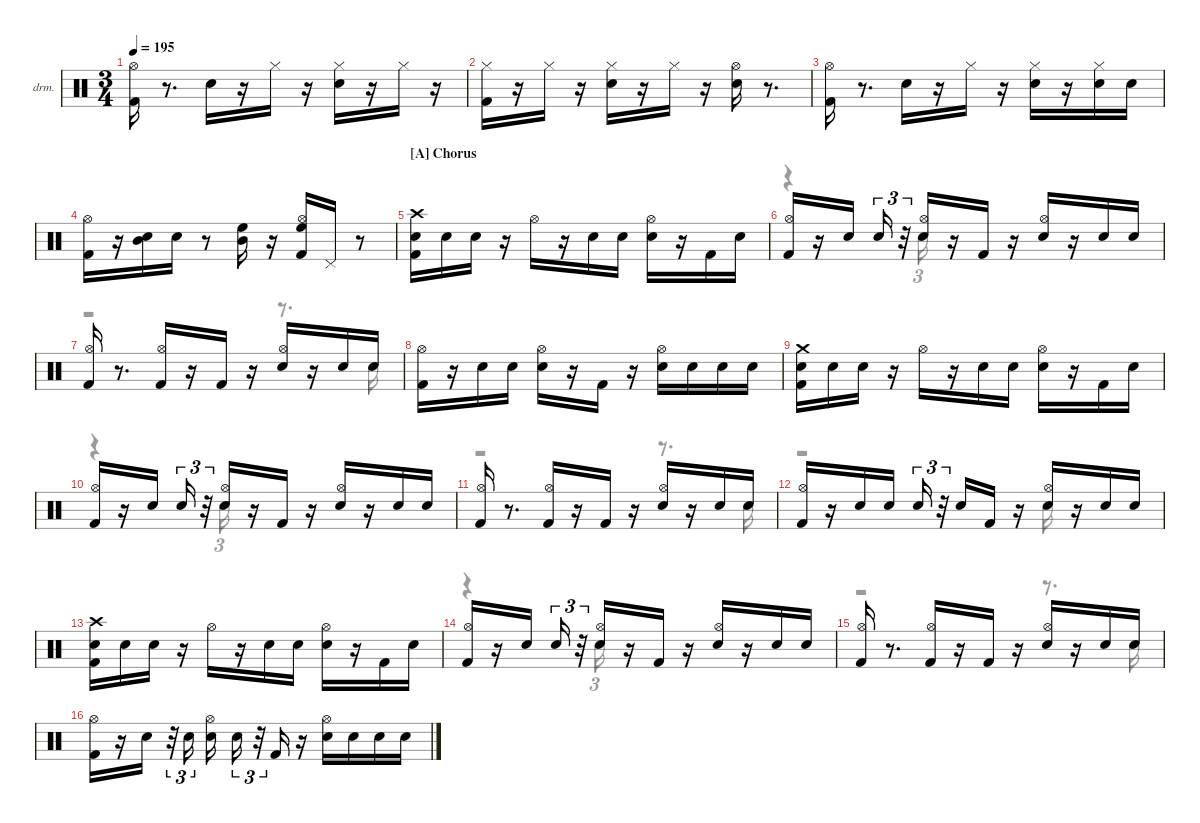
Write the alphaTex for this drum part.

\hideDynamics
\bracketExtendMode nobrackets
\firstSystemTrackNameOrientation horizontal
\track ("Drums" "drm.") {instrument percussion}
\staff {score}
\articulation defaults
\voice
\ts (3 4)
\tempo 195
\clef neutral
\ks aminor
("Kick (hit) 2" "Hi-Hat (open)"{acc #}).16{dy ff} r.8{d} "Snare (hit) 2".16 r.16 "Hi-Hat (closed)"{acc #}.16{dy ppp} r.16 ("Snare (hit) 2" "Hi-Hat (closed)"{acc #}).16{dy f} r.16 "Hi-Hat (closed)"{acc #}.16{dy pp} r.16 |
("Kick (hit) 2" "Hi-Hat (closed)"{acc #}).16{dy fff} r.16 "Hi-Hat (closed)"{acc #}.16{dy ppp} r.16 ("Snare (hit) 2" "Hi-Hat (closed)"{acc #}).16{dy f} r.16 "Hi-Hat (closed)"{acc #}.16{dy ppp} r.16 ("Snare (hit) 2" "Hi-Hat (open)"{acc #}).16{dy f} r.8{d} |
("Kick (hit) 2" "Hi-Hat (open)"{acc #}).16{dy fff} r.8{d} "Snare (hit) 2".16{dy f} r.16 "Hi-Hat (closed)"{acc #}.16{dy ppp} r.16 ("Snare (hit) 2" "Hi-Hat (closed)"{acc #}).16{dy f} r.16 ("Snare (hit) 2" "Hi-Hat (closed)"{acc #}).16{dy pp} "Snare (hit) 2".16 |
("Kick (hit) 2" "Hi-Hat (open)"{acc #}).16{dy fff} r.16 ("Snare (hit) 2" "Mid Tom (hit)").16 "Snare (hit) 2".16{dy ppp} r.8 ("Mid Tom (hit)" "High Floor Tom (hit)").16{dy fff} r.16 ("Kick (hit) 2" "Hi-Hat (open)"{acc #} "High Floor Tom (hit)").16 "Pedal Hi-Hat (hit)"{acc #}.16{dy pp} r.8 |
\section ("A" "Chorus")
("Kick (hit) 2" "Snare (hit) 2" "Crash high (hit)"{acc #}).16{dy fff} "Snare (hit) 2".16{dy pp} "Snare (hit) 2".16{dy ppp} r.16 "Hi-Hat (open)"{acc #}.16{dy mp} r.16 "Snare (hit) 2".16{dy ff} "Snare (hit) 2".16{dy pp} ("Snare (hit) 2" "Hi-Hat (open)"{acc #}).16{dy ppp} r.16 "Kick (hit) 2".16{dy p} "Snare (hit) 2".16{dy ppp} |
("Kick (hit) 2" "Hi-Hat (open)"{acc #}).16{dy ff} r.16 "Snare (hit) 2".16 "Snare (hit) 2".16{tu (3 2) dy pp} r.32{tu (3 2)} ("Snare (hit) 2" "Hi-Hat (open)"{acc #}).16{dy ppp} r.16 "Kick (hit) 2".16{dy f} r.16 ("Snare (hit) 2" "Hi-Hat (open)"{acc #}).16{dy ff} r.16 "Snare (hit) 2".16{dy f} "Snare (hit) 2".16{dy ppp} |
("Kick (hit) 2" "Hi-Hat (open)"{acc #}).16{dy fff} r.8{d} ("Kick (hit) 2" "Hi-Hat (open)"{acc #}).16{dy mp} r.16 "Kick (hit) 2".16{dy ff} r.16 ("Snare (hit) 2" "Hi-Hat (open)"{acc #}).16{dy mf} r.16 "Snare (hit) 2".16{dy pp} "Snare (hit) 2".16{dy ppp} |
("Kick (hit) 2" "Hi-Hat (open)"{acc #}).16{dy ff} r.16 "Snare (hit) 2".16{dy fff} "Snare (hit) 2".16{dy pp} ("Snare (hit) 2" "Hi-Hat (open)"{acc #}).16{dy ppp} r.16 "Kick (hit) 2".16{dy f} r.16 ("Snare (hit) 2" "Hi-Hat (open)"{acc #}).16{dy fff} "Snare (hit) 2".16{dy ppp} "Snare (hit) 2".16 "Snare (hit) 2".16 |
("Kick (hit) 2" "Snare (hit) 2" "Crash medium (hit)").16{dy f} "Snare (hit) 2".16{dy pp} "Snare (hit) 2".16{dy ppp} r.16 "Hi-Hat (open)"{acc #}.16{dy mp} r.16 "Snare (hit) 2".16{dy ff} "Snare (hit) 2".16{dy pp} ("Snare (hit) 2" "Hi-Hat (open)"{acc #}).16{dy mf} r.16 "Kick (hit) 2".16{dy p} "Snare (hit) 2".16{dy ppp} |
("Kick (hit) 2" "Hi-Hat (open)"{acc #}).16{dy ff} r.16 "Snare (hit) 2".16 "Snare (hit) 2".16{tu (3 2) dy pp} r.32{tu (3 2)} ("Snare (hit) 2" "Hi-Hat (open)"{acc #}).16{dy mf} r.16 "Kick (hit) 2".16{dy f} r.16 ("Snare (hit) 2" "Hi-Hat (open)"{acc #}).16{dy ff} r.16 "Snare (hit) 2".16{dy f} "Snare (hit) 2".16{dy ppp} |
("Kick (hit) 2" "Hi-Hat (open)"{acc #}).16{dy fff} r.8{d} ("Kick (hit) 2" "Hi-Hat (open)"{acc #}).16{dy mp} r.16 "Kick (hit) 2".16{dy ff} r.16 ("Snare (hit) 2" "Hi-Hat (open)"{acc #}).16{dy mf} r.16 "Snare (hit) 2".16{dy pp} "Snare (hit) 2".16{dy ppp} |
("Kick (hit) 2" "Hi-Hat (open)"{acc #}).16{dy ff} r.16 "Snare (hit) 2".16{dy mf} "Snare (hit) 2".16{dy p} "Snare (hit) 2".16{tu (3 2) dy fff} r.32{tu (3 2)} "Snare (hit) 2".16{dy ppp} "Kick (hit) 2".16{dy f} r.16 ("Snare (hit) 2" "Hi-Hat (open)"{acc #}).16{dy fff} r.16 "Snare (hit) 2".16{dy pp} "Snare (hit) 2".16{dy ppp} |
("Kick (hit) 2" "Snare (hit) 2" "Crash high (hit)"{acc #}).16{dy fff} "Snare (hit) 2".16{dy pp} "Snare (hit) 2".16{dy ppp} r.16 "Hi-Hat (open)"{acc #}.16{dy mp} r.16 "Snare (hit) 2".16{dy ff} "Snare (hit) 2".16{dy pp} ("Snare (hit) 2" "Hi-Hat (open)"{acc #}).16{dy mf} r.16 "Kick (hit) 2".16{dy p} "Snare (hit) 2".16{dy ppp} |
("Kick (hit) 2" "Hi-Hat (open)"{acc #}).16{dy ff} r.16 "Snare (hit) 2".16 "Snare (hit) 2".16{tu (3 2) dy pp} r.32{tu (3 2)} ("Snare (hit) 2" "Hi-Hat (open)"{acc #}).16{dy ppp} r.16 "Kick (hit) 2".16{dy f} r.16 ("Snare (hit) 2" "Hi-Hat (open)"{acc #}).16{dy ff} r.16 "Snare (hit) 2".16{dy f} "Snare (hit) 2".16{dy ppp} |
("Kick (hit) 2" "Hi-Hat (open)"{acc #}).16{dy fff} r.8{d} ("Kick (hit) 2" "Hi-Hat (open)"{acc #}).16{dy mp} r.16 "Kick (hit) 2".16{dy ff} r.16 ("Snare (hit) 2" "Hi-Hat (open)"{acc #}).16 r.16 "Snare (hit) 2".16{dy pp} "Snare (hit) 2".16{dy ppp} |
("Kick (hit) 2" "Hi-Hat (open)"{acc #}).16{dy ff} r.16 "Snare (hit) 2".16{dy fff} r.32{tu (3 2)} "Snare (hit) 2".16{tu (3 2) dy pp} ("Snare (hit) 2" "Hi-Hat (open)"{acc #}).16{dy mp} "Snare (hit) 2".16{tu (3 2) dy ppp} r.32{tu (3 2)} "Kick (hit) 2".16{dy f} r.16 ("Snare (hit) 2" "Hi-Hat (open)"{acc #}).16{dy mf} "Snare (hit) 2".16{dy ppp} "Snare (hit) 2".16 "Snare (hit) 2".16
\voice
\clef neutral
\ottava regular
\simile none
\ks aminor
|
|
|
|
|
r.4 "Snare (hit) 2".16{tu (3 2)} |
r.2 r.8{d} "Snare (hit) 2".16 |
|
|
r.4 "Snare (hit) 2".16{tu (3 2)} |
r.2 r.8{d} "Snare (hit) 2".16 |
r.2 "Snare (hit) 2".16{dy fff} |
|
r.4 "Snare (hit) 2".16{tu (3 2) dy ppp} |
r.2 r.8{d} "Snare (hit) 2".16 |
